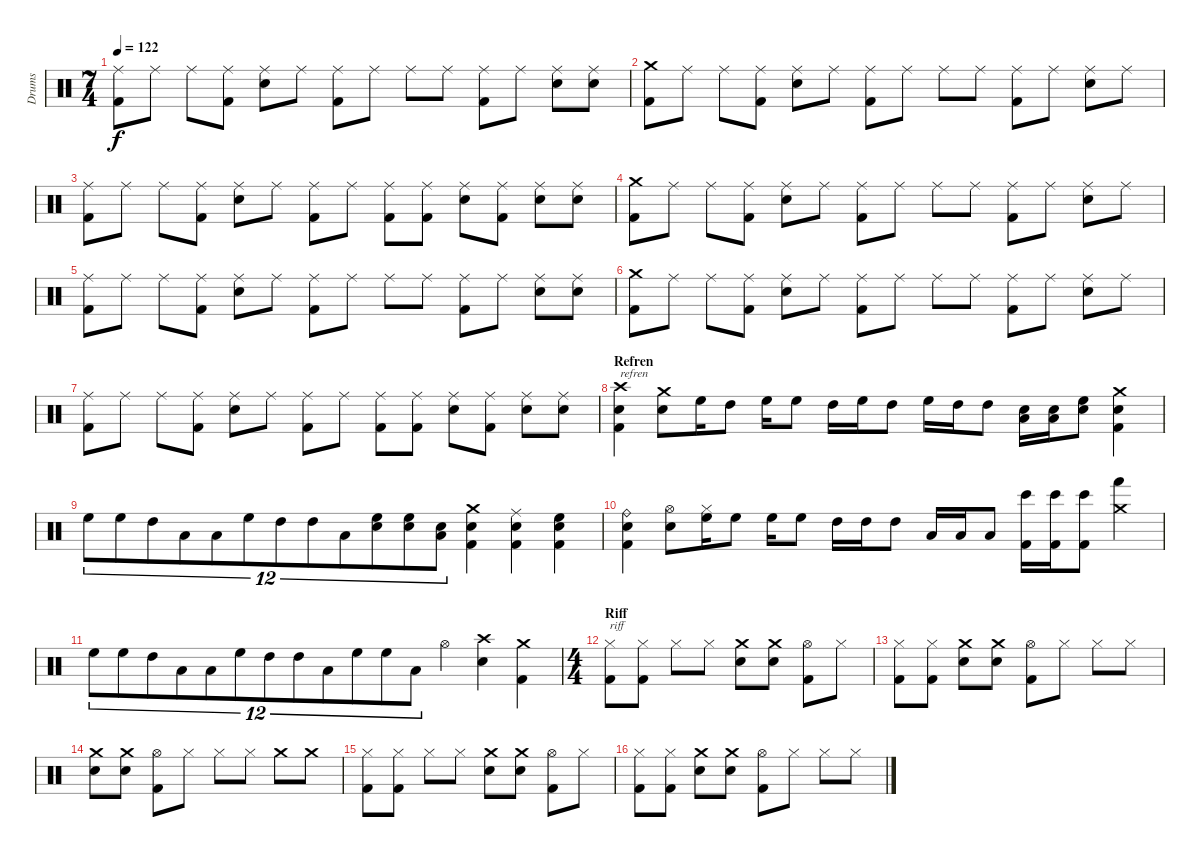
\track ("Drums" "Drums") {instrument percussion}
\staff {score}
\articulation defaults
\ts (7 4)
\tempo 122
\clef neutral
\ks c
("Ride (middle)" "Kick (hit) 2").8{dy f} "Ride (middle)".8 "Ride (middle)".8 ("Ride (middle)" "Kick (hit) 2").8 ("Ride (middle)" "Snare (hit) 2").8 "Ride (middle)".8 ("Ride (middle)" "Kick (hit) 2").8 "Ride (middle)".8 "Ride (middle)".8 "Ride (middle)".8 ("Ride (middle)" "Kick (hit) 2").8 "Ride (middle)".8 ("Ride (middle)" "Snare (hit) 2").8 ("Ride (middle)" "Snare (hit) 2").8 |
("Crash medium (hit)" "Kick (hit) 2").8 "Ride (middle)".8 "Ride (middle)".8 ("Ride (middle)" "Kick (hit) 2").8 ("Ride (middle)" "Snare (hit) 2").8 "Ride (middle)".8 ("Ride (middle)" "Kick (hit) 2").8 "Ride (middle)".8 "Ride (middle)".8 "Ride (middle)".8 ("Ride (middle)" "Kick (hit) 2").8 "Ride (middle)".8 ("Ride (middle)" "Snare (hit) 2").8 "Ride (middle)".8 |
("Ride (middle)" "Kick (hit) 2").8 "Ride (middle)".8 "Ride (middle)".8 ("Ride (middle)" "Kick (hit) 2").8 ("Ride (middle)" "Snare (hit) 2").8 "Ride (middle)".8 ("Ride (middle)" "Kick (hit) 2").8 "Ride (middle)".8 ("Ride (middle)" "Kick (hit) 2").8 ("Ride (middle)" "Kick (hit) 2").8 ("Ride (middle)" "Snare (hit) 2").8 ("Ride (middle)" "Kick (hit) 2").8 ("Ride (middle)" "Snare (hit) 2").8 ("Ride (middle)" "Snare (hit) 2").8 |
("Crash medium (hit)" "Kick (hit) 2").8 "Ride (middle)".8 "Ride (middle)".8 ("Ride (middle)" "Kick (hit) 2").8 ("Ride (middle)" "Snare (hit) 2").8 "Ride (middle)".8 ("Ride (middle)" "Kick (hit) 2").8 "Ride (middle)".8 "Ride (middle)".8 "Ride (middle)".8 ("Ride (middle)" "Kick (hit) 2").8 "Ride (middle)".8 ("Ride (middle)" "Snare (hit) 2").8 "Ride (middle)".8 |
("Ride (middle)" "Kick (hit) 2").8 "Ride (middle)".8 "Ride (middle)".8 ("Ride (middle)" "Kick (hit) 2").8 ("Ride (middle)" "Snare (hit) 2").8 "Ride (middle)".8 ("Ride (middle)" "Kick (hit) 2").8 "Ride (middle)".8 "Ride (middle)".8 "Ride (middle)".8 ("Ride (middle)" "Kick (hit) 2").8 "Ride (middle)".8 ("Ride (middle)" "Snare (hit) 2").8 ("Ride (middle)" "Snare (hit) 2").8 |
("Crash medium (hit)" "Kick (hit) 2").8 "Ride (middle)".8 "Ride (middle)".8 ("Ride (middle)" "Kick (hit) 2").8 ("Ride (middle)" "Snare (hit) 2").8 "Ride (middle)".8 ("Ride (middle)" "Kick (hit) 2").8 "Ride (middle)".8 "Ride (middle)".8 "Ride (middle)".8 ("Ride (middle)" "Kick (hit) 2").8 "Ride (middle)".8 ("Ride (middle)" "Snare (hit) 2").8 "Ride (middle)".8 |
("Ride (middle)" "Kick (hit) 2").8 "Ride (middle)".8 "Ride (middle)".8 ("Ride (middle)" "Kick (hit) 2").8 ("Ride (middle)" "Snare (hit) 2").8 "Ride (middle)".8 ("Ride (middle)" "Kick (hit) 2").8 "Ride (middle)".8 ("Ride (middle)" "Kick (hit) 2").8 ("Ride (middle)" "Kick (hit) 2").8 ("Ride (middle)" "Snare (hit) 2").8 ("Ride (middle)" "Kick (hit) 2").8 ("Ride (middle)" "Snare (hit) 2").8 ("Ride (middle)" "Snare (hit) 2").8 |
\section ("" "Refren")
("Crash high (hit)" "Snare (hit) 2" "Kick (hit) 2").4{txt "refren"} ("Crash medium (hit)" "Snare (hit) 2").8 "High Floor Tom (hit)".16 "High Tom (hit)".8 "High Floor Tom (hit)".16 "High Floor Tom (hit)".8 "High Tom (hit)".16 "High Floor Tom (hit)".16 "High Tom (hit)".8 "High Floor Tom (hit)".16 "High Tom (hit)".16 "High Tom (hit)".8 ("Low Tom (hit)" "Snare (hit) 2").16 ("Low Tom (hit)" "Snare (hit) 2").16 ("High Floor Tom (hit)" "Snare (hit) 2").8 ("Crash medium (hit)" "Snare (hit) 2" "Kick (hit) 2").4 |
"High Floor Tom (hit)".8{tu (12 8)} "High Floor Tom (hit)".8{tu (12 8)} "High Tom (hit)".8{tu (12 8)} "Low Tom (hit)".8{tu (12 8)} "Low Tom (hit)".8{tu (12 8)} "High Floor Tom (hit)".8{tu (12 8)} "High Tom (hit)".8{tu (12 8)} "High Tom (hit)".8{tu (12 8)} "Low Tom (hit)".8{tu (12 8)} ("High Floor Tom (hit)" "Snare (hit) 2").8{tu (12 8)} ("High Floor Tom (hit)" "Snare (hit) 2").8{tu (12 8)} ("Low Tom (hit)" "Snare (hit) 2").8{tu (12 8)} ("Crash medium (hit)" "Snare (hit) 2" "Kick (hit) 2").4 ("Ride (middle)" "Snare (hit) 2" "Kick (hit) 2").4 ("High Floor Tom (hit)" "Snare (hit) 2" "Kick (hit) 2").4 |
("Ride (bell)" "Snare (hit) 2" "Kick (hit) 2").4 ("Hi-Hat (open)" "Snare (hit) 2").8 ("Hi-Hat (closed)" "High Floor Tom (hit)").16 "High Floor Tom (hit)".8 "High Floor Tom (hit)".16 "High Floor Tom (hit)".8 "High Tom (hit)".16 "High Tom (hit)".16 "High Tom (hit)".8 "Low Tom (hit)".16 "Low Tom (hit)".16 "Low Tom (hit)".8 ("Bongo High (hit)" "Kick (hit) 2").16 ("Bongo High (hit)" "Kick (hit) 2").16 ("Bongo High (hit)" "Kick (hit) 2").8 ("Crash medium (hit)" "Hand (hit)").4 |
"High Floor Tom (hit)".8{tu (12 8)} "High Floor Tom (hit)".8{tu (12 8)} "High Tom (hit)".8{tu (12 8)} "Low Tom (hit)".8{tu (12 8)} "Low Tom (hit)".8{tu (12 8)} "High Floor Tom (hit)".8{tu (12 8)} "High Tom (hit)".8{tu (12 8)} "High Tom (hit)".8{tu (12 8)} "Low Tom (hit)".8{tu (12 8)} "High Floor Tom (hit)".8{tu (12 8)} "High Floor Tom (hit)".8{tu (12 8)} "Low Tom (hit)".8{tu (12 8)} "Hi-Hat (open)".4 ("Crash high (hit)" "Snare (hit) 2").4 ("Crash medium (hit)" "Kick (hit) 2").4 |
\ts (4 4)
\section ("" "Riff")
("Hi-Hat (closed)" "Kick (hit) 2").8{txt "riff"} ("Hi-Hat (closed)" "Kick (hit) 2").8 "Hi-Hat (closed)".8 "Hi-Hat (closed)".8 ("Crash medium (hit)" "Snare (hit) 2").8 ("Crash medium (hit)" "Snare (hit) 2").8 ("Hi-Hat (open)" "Kick (hit) 2").8 "Hi-Hat (closed)".8 |
("Hi-Hat (closed)" "Kick (hit) 2").8 ("Hi-Hat (closed)" "Kick (hit) 2").8 ("Crash medium (hit)" "Snare (hit) 2").8 ("Crash medium (hit)" "Snare (hit) 2").8 ("Hi-Hat (open)" "Kick (hit) 2").8 "Hi-Hat (closed)".8 "Hi-Hat (closed)".8 "Hi-Hat (closed)".8 |
("Crash medium (hit)" "Snare (hit) 2").8 ("Crash medium (hit)" "Snare (hit) 2").8 ("Hi-Hat (open)" "Kick (hit) 2").8 "Hi-Hat (closed)".8 "Hi-Hat (closed)".8 "Hi-Hat (closed)".8 "Crash medium (hit)".8 "Crash medium (hit)".8 |
("Hi-Hat (closed)" "Kick (hit) 2").8 ("Hi-Hat (closed)" "Kick (hit) 2").8 "Hi-Hat (closed)".8 "Hi-Hat (closed)".8 ("Crash medium (hit)" "Snare (hit) 2").8 ("Crash medium (hit)" "Snare (hit) 2").8 ("Hi-Hat (open)" "Kick (hit) 2").8 "Hi-Hat (closed)".8 |
("Hi-Hat (closed)" "Kick (hit) 2").8 ("Hi-Hat (closed)" "Kick (hit) 2").8 ("Crash medium (hit)" "Snare (hit) 2").8 ("Crash medium (hit)" "Snare (hit) 2").8 ("Hi-Hat (open)" "Kick (hit) 2").8 "Hi-Hat (closed)".8 "Hi-Hat (closed)".8 "Hi-Hat (closed)".8
